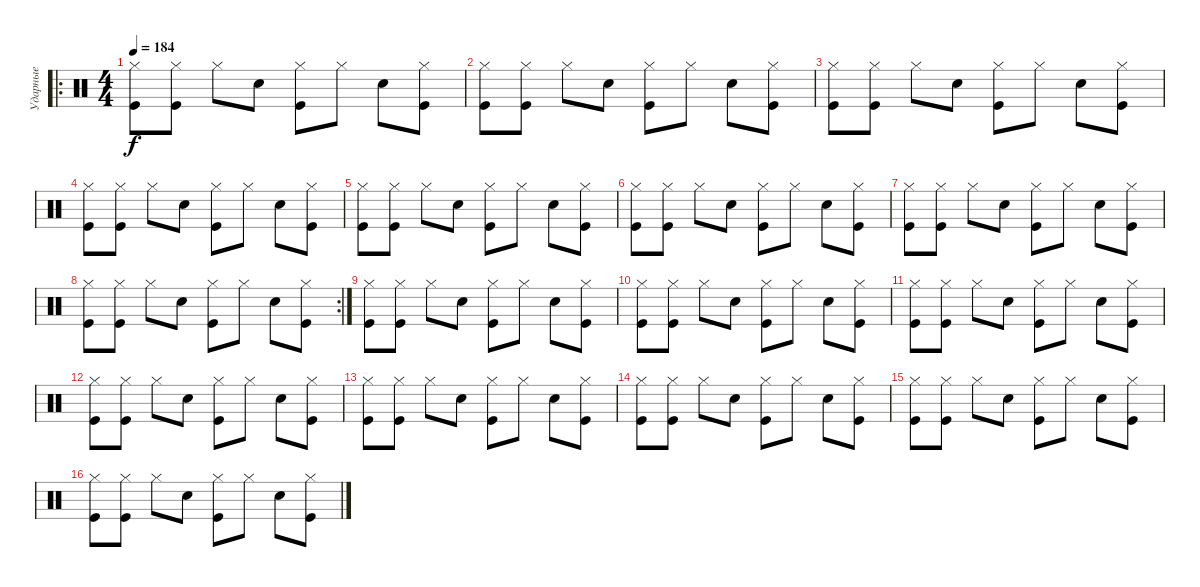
\track ("Ударные" "Ударные") {instrument percussion}
\staff {score}
\articulation defaults
\ro
\ts (4 4)
\tempo 184
\clef neutral
\ks c
("Hi-Hat (closed)" "Kick (hit)").8{dy f} ("Hi-Hat (closed)" "Kick (hit)").8 "Hi-Hat (closed)".8 "Electric Snare (hit)".8 ("Hi-Hat (closed)" "Kick (hit)").8 "Hi-Hat (closed)".8 "Electric Snare (hit)".8 ("Hi-Hat (closed)" "Kick (hit)").8 |
("Hi-Hat (closed)" "Kick (hit)").8 ("Hi-Hat (closed)" "Kick (hit)").8 "Hi-Hat (closed)".8 "Electric Snare (hit)".8 ("Hi-Hat (closed)" "Kick (hit)").8 "Hi-Hat (closed)".8 "Electric Snare (hit)".8 ("Hi-Hat (closed)" "Kick (hit)").8 |
("Hi-Hat (closed)" "Kick (hit)").8 ("Hi-Hat (closed)" "Kick (hit)").8 "Hi-Hat (closed)".8 "Electric Snare (hit)".8 ("Hi-Hat (closed)" "Kick (hit)").8 "Hi-Hat (closed)".8 "Electric Snare (hit)".8 ("Hi-Hat (closed)" "Kick (hit)").8 |
("Hi-Hat (closed)" "Kick (hit)").8 ("Hi-Hat (closed)" "Kick (hit)").8 "Hi-Hat (closed)".8 "Electric Snare (hit)".8 ("Hi-Hat (closed)" "Kick (hit)").8 "Hi-Hat (closed)".8 "Electric Snare (hit)".8 ("Hi-Hat (closed)" "Kick (hit)").8 |
("Hi-Hat (closed)" "Kick (hit)").8 ("Hi-Hat (closed)" "Kick (hit)").8 "Hi-Hat (closed)".8 "Electric Snare (hit)".8 ("Hi-Hat (closed)" "Kick (hit)").8 "Hi-Hat (closed)".8 "Electric Snare (hit)".8 ("Hi-Hat (closed)" "Kick (hit)").8 |
("Hi-Hat (closed)" "Kick (hit)").8 ("Hi-Hat (closed)" "Kick (hit)").8 "Hi-Hat (closed)".8 "Electric Snare (hit)".8 ("Hi-Hat (closed)" "Kick (hit)").8 "Hi-Hat (closed)".8 "Electric Snare (hit)".8 ("Hi-Hat (closed)" "Kick (hit)").8 |
("Hi-Hat (closed)" "Kick (hit)").8 ("Hi-Hat (closed)" "Kick (hit)").8 "Hi-Hat (closed)".8 "Electric Snare (hit)".8 ("Hi-Hat (closed)" "Kick (hit)").8 "Hi-Hat (closed)".8 "Electric Snare (hit)".8 ("Hi-Hat (closed)" "Kick (hit)").8 |
\rc 2
("Hi-Hat (closed)" "Kick (hit)").8 ("Hi-Hat (closed)" "Kick (hit)").8 "Hi-Hat (closed)".8 "Electric Snare (hit)".8 ("Hi-Hat (closed)" "Kick (hit)").8 "Hi-Hat (closed)".8 "Electric Snare (hit)".8 ("Hi-Hat (closed)" "Kick (hit)").8 |
("Hi-Hat (closed)" "Kick (hit)").8 ("Hi-Hat (closed)" "Kick (hit)").8 "Hi-Hat (closed)".8 "Electric Snare (hit)".8 ("Hi-Hat (closed)" "Kick (hit)").8 "Hi-Hat (closed)".8 "Electric Snare (hit)".8 ("Hi-Hat (closed)" "Kick (hit)").8 |
("Hi-Hat (closed)" "Kick (hit)").8 ("Hi-Hat (closed)" "Kick (hit)").8 "Hi-Hat (closed)".8 "Electric Snare (hit)".8 ("Hi-Hat (closed)" "Kick (hit)").8 "Hi-Hat (closed)".8 "Electric Snare (hit)".8 ("Hi-Hat (closed)" "Kick (hit)").8 |
("Hi-Hat (closed)" "Kick (hit)").8 ("Hi-Hat (closed)" "Kick (hit)").8 "Hi-Hat (closed)".8 "Electric Snare (hit)".8 ("Hi-Hat (closed)" "Kick (hit)").8 "Hi-Hat (closed)".8 "Electric Snare (hit)".8 ("Hi-Hat (closed)" "Kick (hit)").8 |
("Hi-Hat (closed)" "Kick (hit)").8 ("Hi-Hat (closed)" "Kick (hit)").8 "Hi-Hat (closed)".8 "Electric Snare (hit)".8 ("Hi-Hat (closed)" "Kick (hit)").8 "Hi-Hat (closed)".8 "Electric Snare (hit)".8 ("Hi-Hat (closed)" "Kick (hit)").8 |
("Hi-Hat (closed)" "Kick (hit)").8 ("Hi-Hat (closed)" "Kick (hit)").8 "Hi-Hat (closed)".8 "Electric Snare (hit)".8 ("Hi-Hat (closed)" "Kick (hit)").8 "Hi-Hat (closed)".8 "Electric Snare (hit)".8 ("Hi-Hat (closed)" "Kick (hit)").8 |
("Hi-Hat (closed)" "Kick (hit)").8 ("Hi-Hat (closed)" "Kick (hit)").8 "Hi-Hat (closed)".8 "Electric Snare (hit)".8 ("Hi-Hat (closed)" "Kick (hit)").8 "Hi-Hat (closed)".8 "Electric Snare (hit)".8 ("Hi-Hat (closed)" "Kick (hit)").8 |
("Hi-Hat (closed)" "Kick (hit)").8 ("Hi-Hat (closed)" "Kick (hit)").8 "Hi-Hat (closed)".8 "Electric Snare (hit)".8 ("Hi-Hat (closed)" "Kick (hit)").8 "Hi-Hat (closed)".8 "Electric Snare (hit)".8 ("Hi-Hat (closed)" "Kick (hit)").8 |
("Hi-Hat (closed)" "Kick (hit)").8 ("Hi-Hat (closed)" "Kick (hit)").8 "Hi-Hat (closed)".8 "Electric Snare (hit)".8 ("Hi-Hat (closed)" "Kick (hit)").8 "Hi-Hat (closed)".8 "Electric Snare (hit)".8 ("Hi-Hat (closed)" "Kick (hit)").8
